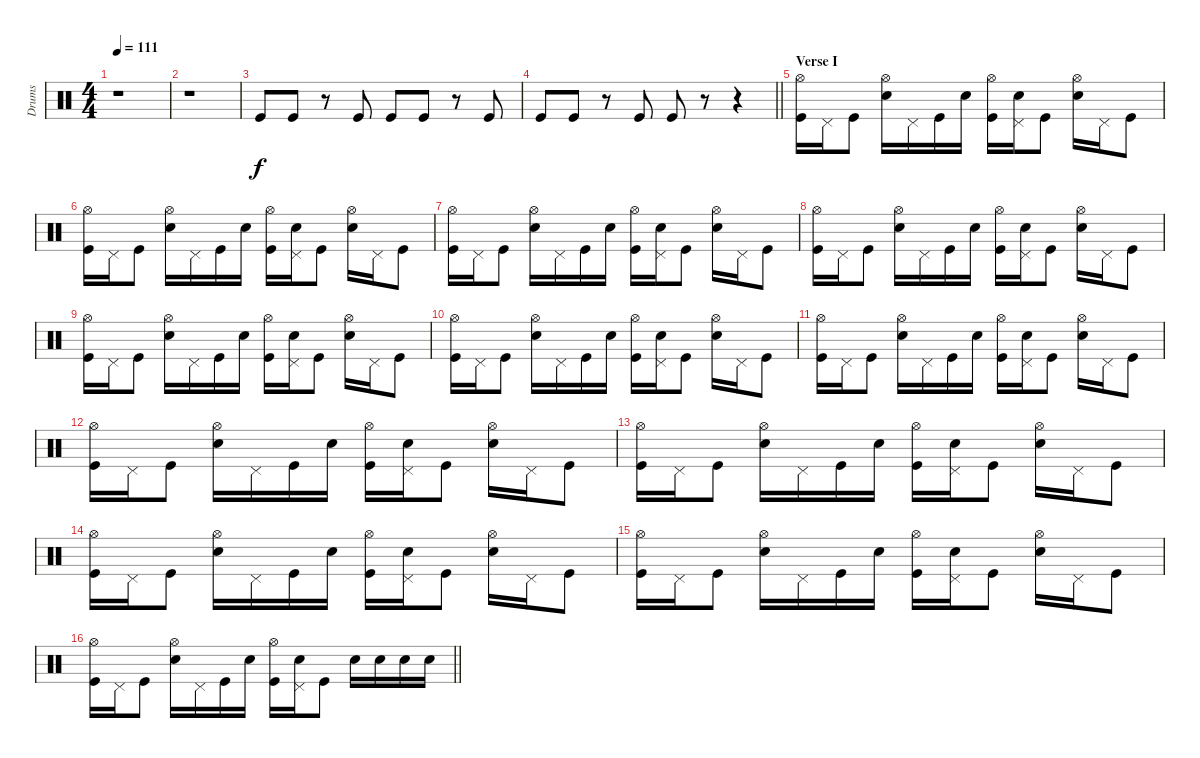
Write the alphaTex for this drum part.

\track ("Drums" "Drums") {instrument percussion}
\staff {score}
\articulation defaults
\ts (4 4)
\tempo 111
\clef neutral
\ks c
r.1{dy f} |
r.1 |
"Kick (hit)".8 "Kick (hit)".8 r.8 "Kick (hit)".8 "Kick (hit)".8 "Kick (hit)".8 r.8 "Kick (hit)".8 |
\barLineRight lightlight "Kick (hit)".8 "Kick (hit)".8
r.8 "Kick (hit)".8 "Kick (hit)".8 r.8 r.4 |
\section ("" "Verse I")
("Hi-Hat (open)" "Kick (hit)").16 "Pedal Hi-Hat (hit)".16 "Kick (hit)".8 ("Hi-Hat (open)" "Electric Snare (hit)").16 "Pedal Hi-Hat (hit)".16 "Kick (hit)".16 "Electric Snare (hit)".16 ("Hi-Hat (open)" "Kick (hit)").16 ("Pedal Hi-Hat (hit)" "Electric Snare (hit)").16 "Kick (hit)".8 ("Hi-Hat (open)" "Electric Snare (hit)").16 "Pedal Hi-Hat (hit)".16 "Kick (hit)".8 |
("Hi-Hat (open)" "Kick (hit)").16 "Pedal Hi-Hat (hit)".16 "Kick (hit)".8 ("Hi-Hat (open)" "Electric Snare (hit)").16 "Pedal Hi-Hat (hit)".16 "Kick (hit)".16 "Electric Snare (hit)".16 ("Hi-Hat (open)" "Kick (hit)").16 ("Pedal Hi-Hat (hit)" "Electric Snare (hit)").16 "Kick (hit)".8 ("Hi-Hat (open)" "Electric Snare (hit)").16 "Pedal Hi-Hat (hit)".16 "Kick (hit)".8 |
("Hi-Hat (open)" "Kick (hit)").16 "Pedal Hi-Hat (hit)".16 "Kick (hit)".8 ("Hi-Hat (open)" "Electric Snare (hit)").16 "Pedal Hi-Hat (hit)".16 "Kick (hit)".16 "Electric Snare (hit)".16 ("Hi-Hat (open)" "Kick (hit)").16 ("Pedal Hi-Hat (hit)" "Electric Snare (hit)").16 "Kick (hit)".8 ("Hi-Hat (open)" "Electric Snare (hit)").16 "Pedal Hi-Hat (hit)".16 "Kick (hit)".8 |
("Hi-Hat (open)" "Kick (hit)").16 "Pedal Hi-Hat (hit)".16 "Kick (hit)".8 ("Hi-Hat (open)" "Electric Snare (hit)").16 "Pedal Hi-Hat (hit)".16 "Kick (hit)".16 "Electric Snare (hit)".16 ("Hi-Hat (open)" "Kick (hit)").16 ("Pedal Hi-Hat (hit)" "Electric Snare (hit)").16 "Kick (hit)".8 ("Hi-Hat (open)" "Electric Snare (hit)").16 "Pedal Hi-Hat (hit)".16 "Kick (hit)".8 |
("Hi-Hat (open)" "Kick (hit)").16 "Pedal Hi-Hat (hit)".16 "Kick (hit)".8 ("Hi-Hat (open)" "Electric Snare (hit)").16 "Pedal Hi-Hat (hit)".16 "Kick (hit)".16 "Electric Snare (hit)".16 ("Hi-Hat (open)" "Kick (hit)").16 ("Pedal Hi-Hat (hit)" "Electric Snare (hit)").16 "Kick (hit)".8 ("Hi-Hat (open)" "Electric Snare (hit)").16 "Pedal Hi-Hat (hit)".16 "Kick (hit)".8 |
("Hi-Hat (open)" "Kick (hit)").16 "Pedal Hi-Hat (hit)".16 "Kick (hit)".8 ("Hi-Hat (open)" "Electric Snare (hit)").16 "Pedal Hi-Hat (hit)".16 "Kick (hit)".16 "Electric Snare (hit)".16 ("Hi-Hat (open)" "Kick (hit)").16 ("Pedal Hi-Hat (hit)" "Electric Snare (hit)").16 "Kick (hit)".8 ("Hi-Hat (open)" "Electric Snare (hit)").16 "Pedal Hi-Hat (hit)".16 "Kick (hit)".8 |
("Hi-Hat (open)" "Kick (hit)").16 "Pedal Hi-Hat (hit)".16 "Kick (hit)".8 ("Hi-Hat (open)" "Electric Snare (hit)").16 "Pedal Hi-Hat (hit)".16 "Kick (hit)".16 "Electric Snare (hit)".16 ("Hi-Hat (open)" "Kick (hit)").16 ("Pedal Hi-Hat (hit)" "Electric Snare (hit)").16 "Kick (hit)".8 ("Hi-Hat (open)" "Electric Snare (hit)").16 "Pedal Hi-Hat (hit)".16 "Kick (hit)".8 |
("Hi-Hat (open)" "Kick (hit)").16 "Pedal Hi-Hat (hit)".16 "Kick (hit)".8 ("Hi-Hat (open)" "Electric Snare (hit)").16 "Pedal Hi-Hat (hit)".16 "Kick (hit)".16 "Electric Snare (hit)".16 ("Hi-Hat (open)" "Kick (hit)").16 ("Pedal Hi-Hat (hit)" "Electric Snare (hit)").16 "Kick (hit)".8 ("Hi-Hat (open)" "Electric Snare (hit)").16 "Pedal Hi-Hat (hit)".16 "Kick (hit)".8 |
("Hi-Hat (open)" "Kick (hit)").16 "Pedal Hi-Hat (hit)".16 "Kick (hit)".8 ("Hi-Hat (open)" "Electric Snare (hit)").16 "Pedal Hi-Hat (hit)".16 "Kick (hit)".16 "Electric Snare (hit)".16 ("Hi-Hat (open)" "Kick (hit)").16 ("Pedal Hi-Hat (hit)" "Electric Snare (hit)").16 "Kick (hit)".8 ("Hi-Hat (open)" "Electric Snare (hit)").16 "Pedal Hi-Hat (hit)".16 "Kick (hit)".8 |
("Hi-Hat (open)" "Kick (hit)").16 "Pedal Hi-Hat (hit)".16 "Kick (hit)".8 ("Hi-Hat (open)" "Electric Snare (hit)").16 "Pedal Hi-Hat (hit)".16 "Kick (hit)".16 "Electric Snare (hit)".16 ("Hi-Hat (open)" "Kick (hit)").16 ("Pedal Hi-Hat (hit)" "Electric Snare (hit)").16 "Kick (hit)".8 ("Hi-Hat (open)" "Electric Snare (hit)").16 "Pedal Hi-Hat (hit)".16 "Kick (hit)".8 |
("Hi-Hat (open)" "Kick (hit)").16 "Pedal Hi-Hat (hit)".16 "Kick (hit)".8 ("Hi-Hat (open)" "Electric Snare (hit)").16 "Pedal Hi-Hat (hit)".16 "Kick (hit)".16 "Electric Snare (hit)".16 ("Hi-Hat (open)" "Kick (hit)").16 ("Pedal Hi-Hat (hit)" "Electric Snare (hit)").16 "Kick (hit)".8 ("Hi-Hat (open)" "Electric Snare (hit)").16 "Pedal Hi-Hat (hit)".16 "Kick (hit)".8 |
\barLineRight lightlight
("Hi-Hat (open)" "Kick (hit)").16 "Pedal Hi-Hat (hit)".16 "Kick (hit)".8 ("Hi-Hat (open)" "Electric Snare (hit)").16 "Pedal Hi-Hat (hit)".16 "Kick (hit)".16 "Electric Snare (hit)".16 ("Hi-Hat (open)" "Kick (hit)").16 ("Pedal Hi-Hat (hit)" "Electric Snare (hit)").16 "Kick (hit)".8 "Snare (hit) 2".16 "Snare (hit) 2".16 "Snare (hit) 2".16 "Snare (hit) 2".16
